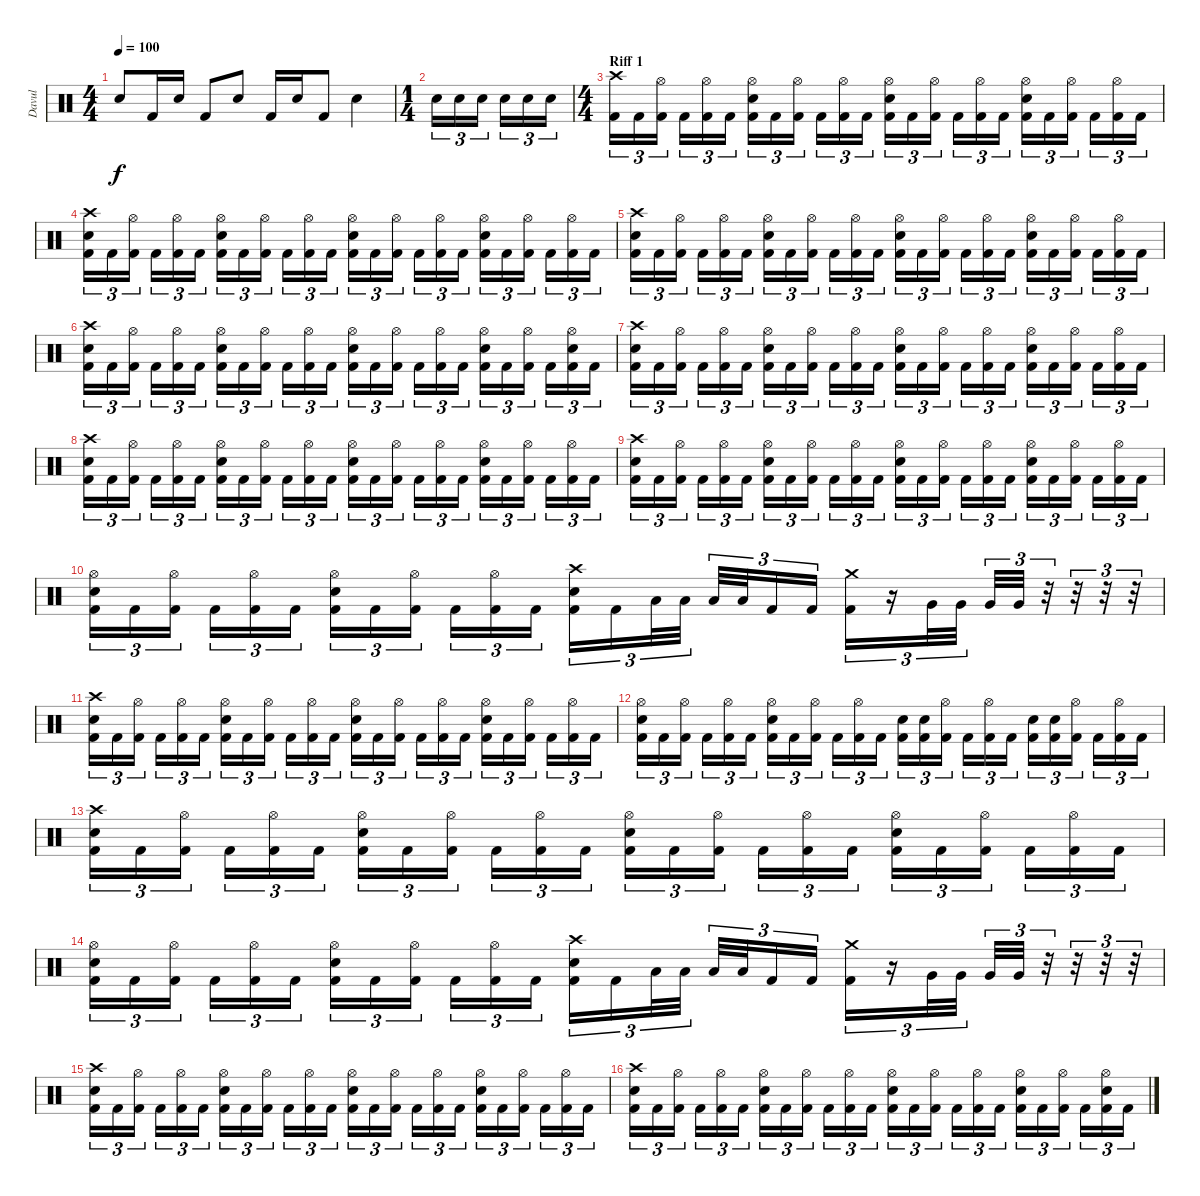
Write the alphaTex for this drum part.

\track ("Davul" "Davul") {instrument percussion}
\staff {score}
\articulation defaults
\ts (4 4)
\tempo 100
\tempo 130
\tempo 100
\clef neutral
\ks c "Electric Snare (hit)".8{dy f} "Kick (hit) 2".16 "Electric Snare (hit)".16 "Kick (hit) 2".8 "Electric Snare (hit)".8 "Kick (hit) 2".16 "Electric Snare (hit)".16 "Kick (hit) 2".8 "Electric Snare (hit)".4
|
\ts (1 4)
"Electric Snare (hit)".16{tu (3 2)} "Electric Snare (hit)".16{tu (3 2)} "Electric Snare (hit)".16{tu (3 2)} "Electric Snare (hit)".16{tu (3 2)} "Electric Snare (hit)".16{tu (3 2)} "Electric Snare (hit)".16{tu (3 2)} |
\ts (4 4)
\section ("" "Riff 1")
("Crash high (hit)" "Kick (hit) 2").16{tu (3 2)} "Kick (hit) 2".16{tu (3 2)} ("Hi-Hat (open)" "Kick (hit) 2").16{tu (3 2)} "Kick (hit) 2".16{tu (3 2)} ("Hi-Hat (open)" "Kick (hit) 2").16{tu (3 2)} "Kick (hit) 2".16{tu (3 2)} ("Hi-Hat (open)" "Electric Snare (hit)" "Kick (hit) 2").16{tu (3 2)} "Kick (hit) 2".16{tu (3 2)} ("Hi-Hat (open)" "Kick (hit) 2").16{tu (3 2)} "Kick (hit) 2".16{tu (3 2)} ("Hi-Hat (open)" "Kick (hit) 2").16{tu (3 2)} "Kick (hit) 2".16{tu (3 2)} ("Hi-Hat (open)" "Electric Snare (hit)" "Kick (hit) 2").16{tu (3 2)} "Kick (hit) 2".16{tu (3 2)} ("Hi-Hat (open)" "Kick (hit) 2").16{tu (3 2)} "Kick (hit) 2".16{tu (3 2)} ("Hi-Hat (open)" "Kick (hit) 2").16{tu (3 2)} "Kick (hit) 2".16{tu (3 2)} ("Hi-Hat (open)" "Electric Snare (hit)" "Kick (hit) 2").16{tu (3 2)} "Kick (hit) 2".16{tu (3 2)} ("Hi-Hat (open)" "Kick (hit) 2").16{tu (3 2)} "Kick (hit) 2".16{tu (3 2)} ("Hi-Hat (open)" "Kick (hit) 2").16{tu (3 2)} "Kick (hit) 2".16{tu (3 2)} |
("Crash high (hit)" "Electric Snare (hit)" "Kick (hit) 2").16{tu (3 2)} "Kick (hit) 2".16{tu (3 2)} ("Hi-Hat (open)" "Kick (hit) 2").16{tu (3 2)} "Kick (hit) 2".16{tu (3 2)} ("Hi-Hat (open)" "Kick (hit) 2").16{tu (3 2)} "Kick (hit) 2".16{tu (3 2)} ("Hi-Hat (open)" "Electric Snare (hit)" "Kick (hit) 2").16{tu (3 2)} "Kick (hit) 2".16{tu (3 2)} ("Hi-Hat (open)" "Kick (hit) 2").16{tu (3 2)} "Kick (hit) 2".16{tu (3 2)} ("Hi-Hat (open)" "Kick (hit) 2").16{tu (3 2)} "Kick (hit) 2".16{tu (3 2)} ("Hi-Hat (open)" "Electric Snare (hit)" "Kick (hit) 2").16{tu (3 2)} "Kick (hit) 2".16{tu (3 2)} ("Hi-Hat (open)" "Kick (hit) 2").16{tu (3 2)} "Kick (hit) 2".16{tu (3 2)} ("Hi-Hat (open)" "Kick (hit) 2").16{tu (3 2)} "Kick (hit) 2".16{tu (3 2)} ("Hi-Hat (open)" "Electric Snare (hit)" "Kick (hit) 2").16{tu (3 2)} "Kick (hit) 2".16{tu (3 2)} ("Hi-Hat (open)" "Kick (hit) 2").16{tu (3 2)} "Kick (hit) 2".16{tu (3 2)} ("Hi-Hat (open)" "Kick (hit) 2").16{tu (3 2)} "Kick (hit) 2".16{tu (3 2)} |
("Crash high (hit)" "Electric Snare (hit)" "Kick (hit) 2").16{tu (3 2)} "Kick (hit) 2".16{tu (3 2)} ("Hi-Hat (open)" "Kick (hit) 2").16{tu (3 2)} "Kick (hit) 2".16{tu (3 2)} ("Hi-Hat (open)" "Kick (hit) 2").16{tu (3 2)} "Kick (hit) 2".16{tu (3 2)} ("Hi-Hat (open)" "Electric Snare (hit)" "Kick (hit) 2").16{tu (3 2)} "Kick (hit) 2".16{tu (3 2)} ("Hi-Hat (open)" "Kick (hit) 2").16{tu (3 2)} "Kick (hit) 2".16{tu (3 2)} ("Hi-Hat (open)" "Kick (hit) 2").16{tu (3 2)} "Kick (hit) 2".16{tu (3 2)} ("Hi-Hat (open)" "Electric Snare (hit)" "Kick (hit) 2").16{tu (3 2)} "Kick (hit) 2".16{tu (3 2)} ("Hi-Hat (open)" "Kick (hit) 2").16{tu (3 2)} "Kick (hit) 2".16{tu (3 2)} ("Hi-Hat (open)" "Kick (hit) 2").16{tu (3 2)} "Kick (hit) 2".16{tu (3 2)} ("Hi-Hat (open)" "Electric Snare (hit)" "Kick (hit) 2").16{tu (3 2)} "Kick (hit) 2".16{tu (3 2)} ("Hi-Hat (open)" "Kick (hit) 2").16{tu (3 2)} "Kick (hit) 2".16{tu (3 2)} ("Hi-Hat (open)" "Kick (hit) 2").16{tu (3 2)} "Kick (hit) 2".16{tu (3 2)} |
("Crash high (hit)" "Electric Snare (hit)" "Kick (hit) 2").16{tu (3 2)} "Kick (hit) 2".16{tu (3 2)} ("Hi-Hat (open)" "Kick (hit) 2").16{tu (3 2)} "Kick (hit) 2".16{tu (3 2)} ("Hi-Hat (open)" "Kick (hit) 2").16{tu (3 2)} "Kick (hit) 2".16{tu (3 2)} ("Hi-Hat (open)" "Electric Snare (hit)" "Kick (hit) 2").16{tu (3 2)} "Kick (hit) 2".16{tu (3 2)} ("Hi-Hat (open)" "Kick (hit) 2").16{tu (3 2)} "Kick (hit) 2".16{tu (3 2)} ("Hi-Hat (open)" "Kick (hit) 2").16{tu (3 2)} "Kick (hit) 2".16{tu (3 2)} ("Hi-Hat (open)" "Electric Snare (hit)" "Kick (hit) 2").16{tu (3 2)} "Kick (hit) 2".16{tu (3 2)} ("Hi-Hat (open)" "Kick (hit) 2").16{tu (3 2)} "Kick (hit) 2".16{tu (3 2)} ("Hi-Hat (open)" "Kick (hit) 2").16{tu (3 2)} "Kick (hit) 2".16{tu (3 2)} ("Hi-Hat (open)" "Electric Snare (hit)" "Kick (hit) 2").16{tu (3 2)} "Kick (hit) 2".16{tu (3 2)} ("Hi-Hat (open)" "Kick (hit) 2").16{tu (3 2)} "Kick (hit) 2".16{tu (3 2)} ("Hi-Hat (open)" "Electric Snare (hit)" "Kick (hit) 2").16{tu (3 2)} "Kick (hit) 2".16{tu (3 2)} |
("Crash high (hit)" "Electric Snare (hit)" "Kick (hit) 2").16{tu (3 2)} "Kick (hit) 2".16{tu (3 2)} ("Hi-Hat (open)" "Kick (hit) 2").16{tu (3 2)} "Kick (hit) 2".16{tu (3 2)} ("Hi-Hat (open)" "Kick (hit) 2").16{tu (3 2)} "Kick (hit) 2".16{tu (3 2)} ("Hi-Hat (open)" "Electric Snare (hit)" "Kick (hit) 2").16{tu (3 2)} "Kick (hit) 2".16{tu (3 2)} ("Hi-Hat (open)" "Kick (hit) 2").16{tu (3 2)} "Kick (hit) 2".16{tu (3 2)} ("Hi-Hat (open)" "Kick (hit) 2").16{tu (3 2)} "Kick (hit) 2".16{tu (3 2)} ("Hi-Hat (open)" "Electric Snare (hit)" "Kick (hit) 2").16{tu (3 2)} "Kick (hit) 2".16{tu (3 2)} ("Hi-Hat (open)" "Kick (hit) 2").16{tu (3 2)} "Kick (hit) 2".16{tu (3 2)} ("Hi-Hat (open)" "Kick (hit) 2").16{tu (3 2)} "Kick (hit) 2".16{tu (3 2)} ("Hi-Hat (open)" "Electric Snare (hit)" "Kick (hit) 2").16{tu (3 2)} "Kick (hit) 2".16{tu (3 2)} ("Hi-Hat (open)" "Kick (hit) 2").16{tu (3 2)} "Kick (hit) 2".16{tu (3 2)} ("Hi-Hat (open)" "Kick (hit) 2").16{tu (3 2)} "Kick (hit) 2".16{tu (3 2)} |
("Crash high (hit)" "Electric Snare (hit)" "Kick (hit) 2").16{tu (3 2)} "Kick (hit) 2".16{tu (3 2)} ("Hi-Hat (open)" "Kick (hit) 2").16{tu (3 2)} "Kick (hit) 2".16{tu (3 2)} ("Hi-Hat (open)" "Kick (hit) 2").16{tu (3 2)} "Kick (hit) 2".16{tu (3 2)} ("Hi-Hat (open)" "Electric Snare (hit)" "Kick (hit) 2").16{tu (3 2)} "Kick (hit) 2".16{tu (3 2)} ("Hi-Hat (open)" "Kick (hit) 2").16{tu (3 2)} "Kick (hit) 2".16{tu (3 2)} ("Hi-Hat (open)" "Kick (hit) 2").16{tu (3 2)} "Kick (hit) 2".16{tu (3 2)} ("Hi-Hat (open)" "Electric Snare (hit)" "Kick (hit) 2").16{tu (3 2)} "Kick (hit) 2".16{tu (3 2)} ("Hi-Hat (open)" "Kick (hit) 2").16{tu (3 2)} "Kick (hit) 2".16{tu (3 2)} ("Hi-Hat (open)" "Kick (hit) 2").16{tu (3 2)} "Kick (hit) 2".16{tu (3 2)} ("Hi-Hat (open)" "Electric Snare (hit)" "Kick (hit) 2").16{tu (3 2)} "Kick (hit) 2".16{tu (3 2)} ("Hi-Hat (open)" "Kick (hit) 2").16{tu (3 2)} "Kick (hit) 2".16{tu (3 2)} ("Hi-Hat (open)" "Kick (hit) 2").16{tu (3 2)} "Kick (hit) 2".16{tu (3 2)} |
("Crash high (hit)" "Electric Snare (hit)" "Kick (hit) 2").16{tu (3 2)} "Kick (hit) 2".16{tu (3 2)} ("Hi-Hat (open)" "Kick (hit) 2").16{tu (3 2)} "Kick (hit) 2".16{tu (3 2)} ("Hi-Hat (open)" "Kick (hit) 2").16{tu (3 2)} "Kick (hit) 2".16{tu (3 2)} ("Hi-Hat (open)" "Electric Snare (hit)" "Kick (hit) 2").16{tu (3 2)} "Kick (hit) 2".16{tu (3 2)} ("Hi-Hat (open)" "Kick (hit) 2").16{tu (3 2)} "Kick (hit) 2".16{tu (3 2)} ("Hi-Hat (open)" "Kick (hit) 2").16{tu (3 2)} "Kick (hit) 2".16{tu (3 2)} ("Hi-Hat (open)" "Electric Snare (hit)" "Kick (hit) 2").16{tu (3 2)} "Kick (hit) 2".16{tu (3 2)} ("Hi-Hat (open)" "Kick (hit) 2").16{tu (3 2)} "Kick (hit) 2".16{tu (3 2)} ("Hi-Hat (open)" "Kick (hit) 2").16{tu (3 2)} "Kick (hit) 2".16{tu (3 2)} ("Hi-Hat (open)" "Electric Snare (hit)" "Kick (hit) 2").16{tu (3 2)} "Kick (hit) 2".16{tu (3 2)} ("Hi-Hat (open)" "Kick (hit) 2").16{tu (3 2)} "Kick (hit) 2".16{tu (3 2)} ("Hi-Hat (open)" "Kick (hit) 2").16{tu (3 2)} "Kick (hit) 2".16{tu (3 2)} |
("Hi-Hat (open)" "Electric Snare (hit)" "Kick (hit) 2").16{tu (3 2)} "Kick (hit) 2".16{tu (3 2)} ("Hi-Hat (open)" "Kick (hit) 2").16{tu (3 2)} "Kick (hit) 2".16{tu (3 2)} ("Hi-Hat (open)" "Kick (hit) 2").16{tu (3 2)} "Kick (hit) 2".16{tu (3 2)} ("Hi-Hat (open)" "Electric Snare (hit)" "Kick (hit) 2").16{tu (3 2)} "Kick (hit) 2".16{tu (3 2)} ("Hi-Hat (open)" "Kick (hit) 2").16{tu (3 2)} "Kick (hit) 2".16{tu (3 2)} ("Hi-Hat (open)" "Kick (hit) 2").16{tu (3 2)} "Kick (hit) 2".16{tu (3 2)} ("Crash high (hit)" "Electric Snare (hit)" "Kick (hit) 2").16{tu (3 2)} "Kick (hit) 2".16{tu (3 2)} "Low Tom (hit)".32{tu (3 2)} "Low Tom (hit)".32{tu (3 2)} "Low Tom (hit)".32{tu (3 2)} "Low Tom (hit)".32{tu (3 2)} "Kick (hit) 2".16{tu (3 2)} "Kick (hit) 2".16{tu (3 2)} ("Crash medium (hit)" "Kick (hit) 2").16{tu (3 2)} r.16{tu (3 2)} "Very Low Tom (hit)".32{tu (3 2)} "Very Low Tom (hit)".32{tu (3 2)} "Very Low Tom (hit)".32{tu (3 2)} "Very Low Tom (hit)".32{tu (3 2)} r.32{tu (3 2)} r.32{tu (3 2)} r.32{tu (3 2)} r.32{tu (3 2)} |
("Crash high (hit)" "Electric Snare (hit)" "Kick (hit) 2").16{tu (3 2)} "Kick (hit) 2".16{tu (3 2)} ("Hi-Hat (open)" "Kick (hit) 2").16{tu (3 2)} "Kick (hit) 2".16{tu (3 2)} ("Hi-Hat (open)" "Kick (hit) 2").16{tu (3 2)} "Kick (hit) 2".16{tu (3 2)} ("Hi-Hat (open)" "Electric Snare (hit)" "Kick (hit) 2").16{tu (3 2)} "Kick (hit) 2".16{tu (3 2)} ("Hi-Hat (open)" "Kick (hit) 2").16{tu (3 2)} "Kick (hit) 2".16{tu (3 2)} ("Hi-Hat (open)" "Kick (hit) 2").16{tu (3 2)} "Kick (hit) 2".16{tu (3 2)} ("Hi-Hat (open)" "Electric Snare (hit)" "Kick (hit) 2").16{tu (3 2)} "Kick (hit) 2".16{tu (3 2)} ("Hi-Hat (open)" "Kick (hit) 2").16{tu (3 2)} "Kick (hit) 2".16{tu (3 2)} ("Hi-Hat (open)" "Kick (hit) 2").16{tu (3 2)} "Kick (hit) 2".16{tu (3 2)} ("Hi-Hat (open)" "Electric Snare (hit)" "Kick (hit) 2").16{tu (3 2)} "Kick (hit) 2".16{tu (3 2)} ("Hi-Hat (open)" "Kick (hit) 2").16{tu (3 2)} "Kick (hit) 2".16{tu (3 2)} ("Hi-Hat (open)" "Kick (hit) 2").16{tu (3 2)} "Kick (hit) 2".16{tu (3 2)} |
("Hi-Hat (open)" "Electric Snare (hit)" "Kick (hit) 2").16{tu (3 2)} "Kick (hit) 2".16{tu (3 2)} ("Hi-Hat (open)" "Kick (hit) 2").16{tu (3 2)} "Kick (hit) 2".16{tu (3 2)} ("Hi-Hat (open)" "Kick (hit) 2").16{tu (3 2)} "Kick (hit) 2".16{tu (3 2)} ("Hi-Hat (open)" "Electric Snare (hit)" "Kick (hit) 2").16{tu (3 2)} "Kick (hit) 2".16{tu (3 2)} ("Hi-Hat (open)" "Kick (hit) 2").16{tu (3 2)} "Kick (hit) 2".16{tu (3 2)} ("Hi-Hat (open)" "Kick (hit) 2").16{tu (3 2)} "Kick (hit) 2".16{tu (3 2)} ("Electric Snare (hit)" "Kick (hit) 2").16{tu (3 2)} ("Electric Snare (hit)" "Kick (hit) 2").16{tu (3 2)} ("Hi-Hat (open)" "Kick (hit) 2").16{tu (3 2)} "Kick (hit) 2".16{tu (3 2)} ("Hi-Hat (open)" "Kick (hit) 2").16{tu (3 2)} "Kick (hit) 2".16{tu (3 2)} ("Electric Snare (hit)" "Kick (hit) 2").16{tu (3 2)} ("Electric Snare (hit)" "Kick (hit) 2").16{tu (3 2)} ("Hi-Hat (open)" "Kick (hit) 2").16{tu (3 2)} "Kick (hit) 2".16{tu (3 2)} ("Hi-Hat (open)" "Kick (hit) 2").16{tu (3 2)} "Kick (hit) 2".16{tu (3 2)} |
("Crash high (hit)" "Electric Snare (hit)" "Kick (hit) 2").16{tu (3 2)} "Kick (hit) 2".16{tu (3 2)} ("Hi-Hat (open)" "Kick (hit) 2").16{tu (3 2)} "Kick (hit) 2".16{tu (3 2)} ("Hi-Hat (open)" "Kick (hit) 2").16{tu (3 2)} "Kick (hit) 2".16{tu (3 2)} ("Hi-Hat (open)" "Electric Snare (hit)" "Kick (hit) 2").16{tu (3 2)} "Kick (hit) 2".16{tu (3 2)} ("Hi-Hat (open)" "Kick (hit) 2").16{tu (3 2)} "Kick (hit) 2".16{tu (3 2)} ("Hi-Hat (open)" "Kick (hit) 2").16{tu (3 2)} "Kick (hit) 2".16{tu (3 2)} ("Hi-Hat (open)" "Electric Snare (hit)" "Kick (hit) 2").16{tu (3 2)} "Kick (hit) 2".16{tu (3 2)} ("Hi-Hat (open)" "Kick (hit) 2").16{tu (3 2)} "Kick (hit) 2".16{tu (3 2)} ("Hi-Hat (open)" "Kick (hit) 2").16{tu (3 2)} "Kick (hit) 2".16{tu (3 2)} ("Hi-Hat (open)" "Electric Snare (hit)" "Kick (hit) 2").16{tu (3 2)} "Kick (hit) 2".16{tu (3 2)} ("Hi-Hat (open)" "Kick (hit) 2").16{tu (3 2)} "Kick (hit) 2".16{tu (3 2)} ("Hi-Hat (open)" "Kick (hit) 2").16{tu (3 2)} "Kick (hit) 2".16{tu (3 2)} |
("Hi-Hat (open)" "Electric Snare (hit)" "Kick (hit) 2").16{tu (3 2)} "Kick (hit) 2".16{tu (3 2)} ("Hi-Hat (open)" "Kick (hit) 2").16{tu (3 2)} "Kick (hit) 2".16{tu (3 2)} ("Hi-Hat (open)" "Kick (hit) 2").16{tu (3 2)} "Kick (hit) 2".16{tu (3 2)} ("Hi-Hat (open)" "Electric Snare (hit)" "Kick (hit) 2").16{tu (3 2)} "Kick (hit) 2".16{tu (3 2)} ("Hi-Hat (open)" "Kick (hit) 2").16{tu (3 2)} "Kick (hit) 2".16{tu (3 2)} ("Hi-Hat (open)" "Kick (hit) 2").16{tu (3 2)} "Kick (hit) 2".16{tu (3 2)} ("Crash high (hit)" "Electric Snare (hit)" "Kick (hit) 2").16{tu (3 2)} "Kick (hit) 2".16{tu (3 2)} "Low Tom (hit)".32{tu (3 2)} "Low Tom (hit)".32{tu (3 2)} "Low Tom (hit)".32{tu (3 2)} "Low Tom (hit)".32{tu (3 2)} "Kick (hit) 2".16{tu (3 2)} "Kick (hit) 2".16{tu (3 2)} ("Crash medium (hit)" "Kick (hit) 2").16{tu (3 2)} r.16{tu (3 2)} "Very Low Tom (hit)".32{tu (3 2)} "Very Low Tom (hit)".32{tu (3 2)} "Very Low Tom (hit)".32{tu (3 2)} "Very Low Tom (hit)".32{tu (3 2)} r.32{tu (3 2)} r.32{tu (3 2)} r.32{tu (3 2)} r.32{tu (3 2)} |
("Crash high (hit)" "Electric Snare (hit)" "Kick (hit) 2").16{tu (3 2)} "Kick (hit) 2".16{tu (3 2)} ("Hi-Hat (open)" "Kick (hit) 2").16{tu (3 2)} "Kick (hit) 2".16{tu (3 2)} ("Hi-Hat (open)" "Kick (hit) 2").16{tu (3 2)} "Kick (hit) 2".16{tu (3 2)} ("Hi-Hat (open)" "Electric Snare (hit)" "Kick (hit) 2").16{tu (3 2)} "Kick (hit) 2".16{tu (3 2)} ("Hi-Hat (open)" "Kick (hit) 2").16{tu (3 2)} "Kick (hit) 2".16{tu (3 2)} ("Hi-Hat (open)" "Kick (hit) 2").16{tu (3 2)} "Kick (hit) 2".16{tu (3 2)} ("Hi-Hat (open)" "Electric Snare (hit)" "Kick (hit) 2").16{tu (3 2)} "Kick (hit) 2".16{tu (3 2)} ("Hi-Hat (open)" "Kick (hit) 2").16{tu (3 2)} "Kick (hit) 2".16{tu (3 2)} ("Hi-Hat (open)" "Kick (hit) 2").16{tu (3 2)} "Kick (hit) 2".16{tu (3 2)} ("Hi-Hat (open)" "Electric Snare (hit)" "Kick (hit) 2").16{tu (3 2)} "Kick (hit) 2".16{tu (3 2)} ("Hi-Hat (open)" "Kick (hit) 2").16{tu (3 2)} "Kick (hit) 2".16{tu (3 2)} ("Hi-Hat (open)" "Kick (hit) 2").16{tu (3 2)} "Kick (hit) 2".16{tu (3 2)} |
("Crash high (hit)" "Electric Snare (hit)" "Kick (hit) 2").16{tu (3 2)} "Kick (hit) 2".16{tu (3 2)} ("Hi-Hat (open)" "Kick (hit) 2").16{tu (3 2)} "Kick (hit) 2".16{tu (3 2)} ("Hi-Hat (open)" "Kick (hit) 2").16{tu (3 2)} "Kick (hit) 2".16{tu (3 2)} ("Hi-Hat (open)" "Electric Snare (hit)" "Kick (hit) 2").16{tu (3 2)} "Kick (hit) 2".16{tu (3 2)} ("Hi-Hat (open)" "Kick (hit) 2").16{tu (3 2)} "Kick (hit) 2".16{tu (3 2)} ("Hi-Hat (open)" "Kick (hit) 2").16{tu (3 2)} "Kick (hit) 2".16{tu (3 2)} ("Hi-Hat (open)" "Electric Snare (hit)" "Kick (hit) 2").16{tu (3 2)} "Kick (hit) 2".16{tu (3 2)} ("Hi-Hat (open)" "Kick (hit) 2").16{tu (3 2)} "Kick (hit) 2".16{tu (3 2)} ("Hi-Hat (open)" "Kick (hit) 2").16{tu (3 2)} "Kick (hit) 2".16{tu (3 2)} ("Hi-Hat (open)" "Electric Snare (hit)" "Kick (hit) 2").16{tu (3 2)} "Kick (hit) 2".16{tu (3 2)} ("Hi-Hat (open)" "Kick (hit) 2").16{tu (3 2)} "Kick (hit) 2".16{tu (3 2)} ("Hi-Hat (open)" "Electric Snare (hit)" "Kick (hit) 2").16{tu (3 2)} "Kick (hit) 2".16{tu (3 2)}
